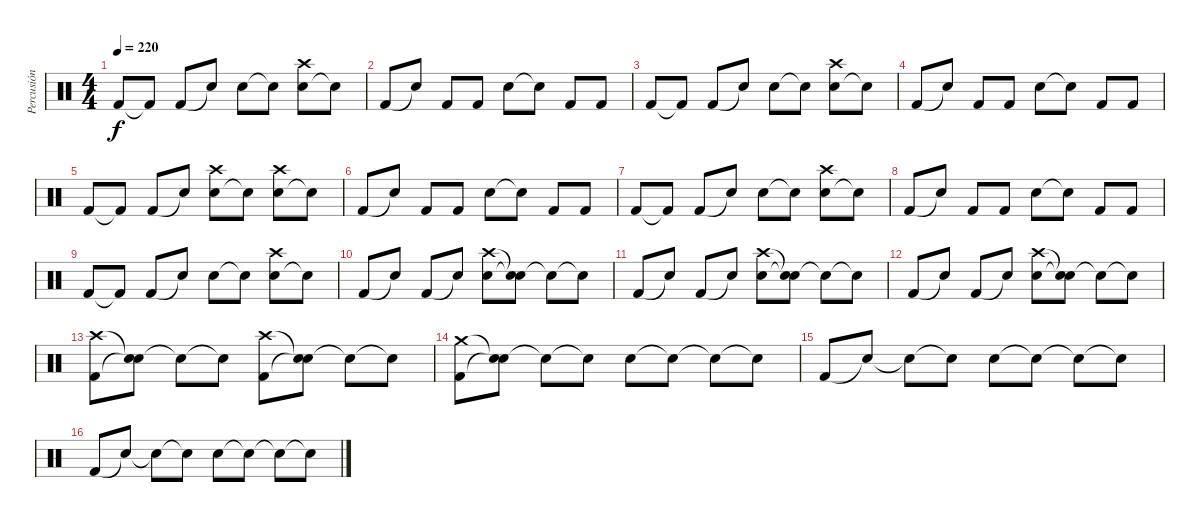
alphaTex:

\track ("Percusión" "Percusión") {instrument percussion}
\staff {score}
\articulation defaults
\ts (4 4)
\tempo 220
\clef neutral
\ks c "Kick (hit) 2".8{dy f} "Kick (hit) 2"{t}.8 "Kick (hit) 2".8 "Snare (hit)"{t}.8 "Snare (hit) 2".8 "Snare (hit)"{t}.8
("Snare (hit) 2" "Crash high (hit)").8 "Snare (hit)"{t}.8 |
"Kick (hit) 2".8 "Snare (hit)"{t}.8 "Kick (hit) 2".8 "Kick (hit) 2".8 "Snare (hit) 2".8 "Snare (hit)"{t}.8 "Kick (hit) 2".8 "Kick (hit) 2".8 |
"Kick (hit) 2".8 "Kick (hit) 2"{t}.8 "Kick (hit) 2".8 "Snare (hit)"{t}.8 "Snare (hit) 2".8 "Snare (hit)"{t}.8 ("Snare (hit) 2" "Crash high (hit)").8 "Snare (hit)"{t}.8 |
"Kick (hit) 2".8 "Snare (hit)"{t}.8 "Kick (hit) 2".8 "Kick (hit) 2".8 "Snare (hit) 2".8 "Snare (hit)"{t}.8 "Kick (hit) 2".8 "Kick (hit) 2".8 |
"Kick (hit) 2".8 "Kick (hit) 2"{t}.8 "Kick (hit) 2".8 "Snare (hit)"{t}.8 ("Snare (hit) 2" "Crash high (hit)").8 "Snare (hit)"{t}.8 ("Snare (hit) 2" "Crash high (hit)").8 "Snare (hit)"{t}.8 |
"Kick (hit) 2".8 "Snare (hit)"{t}.8 "Kick (hit) 2".8 "Kick (hit) 2".8 "Snare (hit) 2".8 "Snare (hit)"{t}.8 "Kick (hit) 2".8 "Kick (hit) 2".8 |
"Kick (hit) 2".8 "Kick (hit) 2"{t}.8 "Kick (hit) 2".8 "Snare (hit)"{t}.8 "Snare (hit) 2".8 "Snare (hit)"{t}.8 ("Snare (hit) 2" "Crash high (hit)").8 "Snare (hit)"{t}.8 |
"Kick (hit) 2".8 "Snare (hit)"{t}.8 "Kick (hit) 2".8 "Kick (hit) 2".8 "Snare (hit) 2".8 "Snare (hit)"{t}.8 "Kick (hit) 2".8 "Kick (hit) 2".8 |
"Kick (hit) 2".8 "Kick (hit) 2"{t}.8 "Kick (hit) 2".8 "Snare (hit)"{t}.8 "Snare (hit) 2".8 "Snare (hit)"{t}.8 ("Snare (hit) 2" "Crash high (hit)").8 "Snare (hit)"{t}.8 |
"Kick (hit) 2".8 "Snare (hit)"{t}.8 "Kick (hit) 2".8 "Snare (hit)"{t}.8 ("Snare (hit) 2" "Crash high (hit)").8 ("Snare (hit)"{t} "Snare (hit)"{t}).8 "Snare (hit)"{t}.8 "Snare (hit)"{t}.8 |
"Kick (hit) 2".8 "Snare (hit)"{t}.8 "Kick (hit) 2".8 "Snare (hit)"{t}.8 ("Snare (hit) 2" "Crash high (hit)").8 ("Snare (hit)"{t} "Snare (hit)"{t}).8 "Snare (hit)"{t}.8 "Snare (hit)"{t}.8 |
"Kick (hit) 2".8 "Snare (hit)"{t}.8 "Kick (hit) 2".8 "Snare (hit)"{t}.8 ("Snare (hit) 2" "Crash high (hit)").8 ("Snare (hit)"{t} "Snare (hit)"{t}).8 "Snare (hit)"{t}.8 "Snare (hit)"{t}.8 |
("Kick (hit) 2" "Crash high (hit)").8 ("Snare (hit)"{t} "Snare (hit)"{t}).8 "Snare (hit)"{t}.8 "Snare (hit)"{t}.8 ("Kick (hit) 2" "Crash high (hit)").8 ("Snare (hit)"{t} "Snare (hit)"{t}).8 "Snare (hit)"{t}.8 "Snare (hit)"{t}.8 |
("Kick (hit) 2" "Crash medium (hit)").8 ("Snare (hit)"{t} "Snare (hit)"{t}).8 "Snare (hit)"{t}.8 "Snare (hit)"{t}.8 "Snare (hit) 2".8 "Snare (hit)"{t}.8 "Snare (hit)"{t}.8 "Snare (hit)"{t}.8 |
"Kick (hit) 2".8 "Snare (hit)"{t}.8 "Snare (hit)"{t}.8 "Snare (hit)"{t}.8 "Snare (hit) 2".8 "Snare (hit)"{t}.8 "Snare (hit)"{t}.8 "Snare (hit)"{t}.8 |
"Kick (hit) 2".8 "Snare (hit)"{t}.8 "Snare (hit)"{t}.8 "Snare (hit)"{t}.8 "Snare (hit) 2".8 "Snare (hit)"{t}.8 "Snare (hit)"{t}.8 "Snare (hit)"{t}.8
